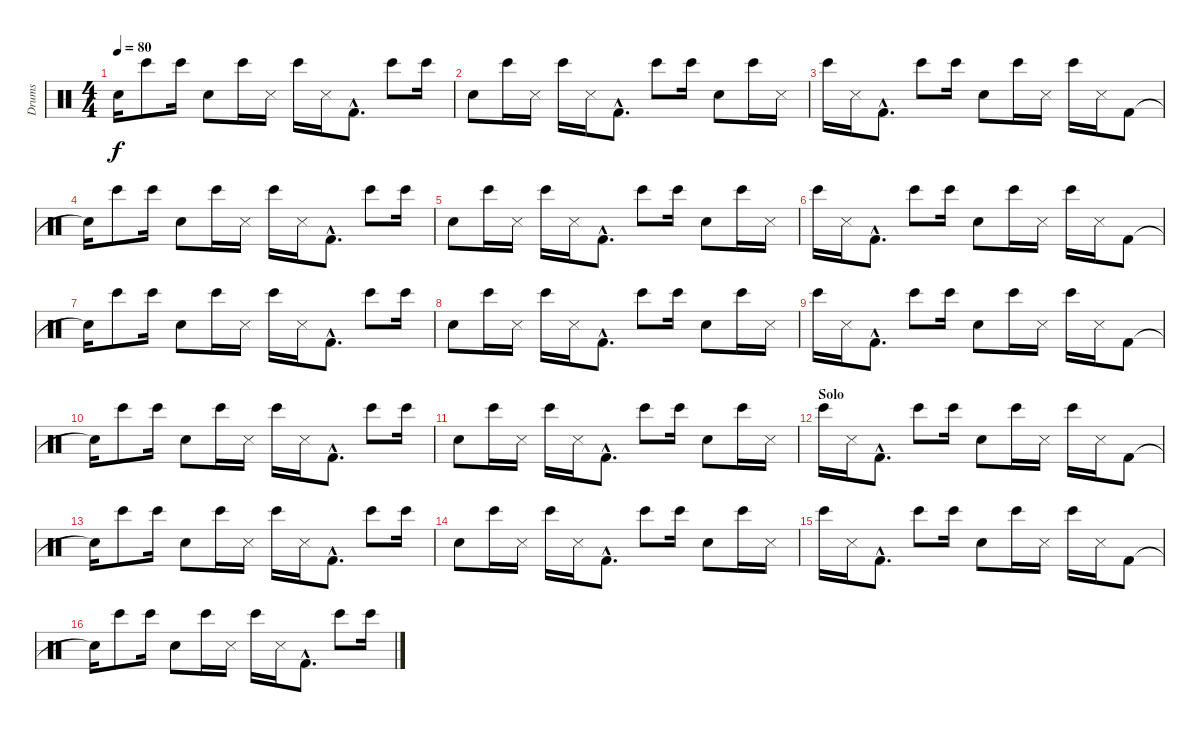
\track ("Drums" "Drums") {instrument percussion}
\staff {score}
\articulation defaults
\ts (4 4)
\tempo 80
\clef neutral
\ks c "Snare (hit)"{t}.16{dy f} "Bongo High (hit)".8 "Bongo High (hit)".16 "Electric Snare (hit)".8 "Bongo High (hit)".16 "Snare (side stick) 3".16 "Bongo High (hit)".16 "Snare (side stick) 3".16 "Kick (hit) 2"{hac}.8{d} "Bongo High (hit)".8 "Bongo High (hit)".16
|
"Electric Snare (hit)".8 "Bongo High (hit)".16 "Snare (side stick) 3".16 "Bongo High (hit)".16 "Snare (side stick) 3".16 "Kick (hit) 2"{hac}.8{d} "Bongo High (hit)".8 "Bongo High (hit)".16 "Electric Snare (hit)".8 "Bongo High (hit)".16 "Snare (side stick) 3".16 |
"Bongo High (hit)".16 "Snare (side stick) 3".16 "Kick (hit) 2"{hac}.8{d} "Bongo High (hit)".8 "Bongo High (hit)".16 "Electric Snare (hit)".8 "Bongo High (hit)".16 "Snare (side stick) 3".16 "Bongo High (hit)".16 "Snare (side stick) 3".16 "Kick (hit) 2".8 |
"Snare (hit)"{t}.16 "Bongo High (hit)".8 "Bongo High (hit)".16 "Electric Snare (hit)".8 "Bongo High (hit)".16 "Snare (side stick) 3".16 "Bongo High (hit)".16 "Snare (side stick) 3".16 "Kick (hit) 2"{hac}.8{d} "Bongo High (hit)".8 "Bongo High (hit)".16 |
"Electric Snare (hit)".8 "Bongo High (hit)".16 "Snare (side stick) 3".16 "Bongo High (hit)".16 "Snare (side stick) 3".16 "Kick (hit) 2"{hac}.8{d} "Bongo High (hit)".8 "Bongo High (hit)".16 "Electric Snare (hit)".8 "Bongo High (hit)".16 "Snare (side stick) 3".16 |
"Bongo High (hit)".16 "Snare (side stick) 3".16 "Kick (hit) 2"{hac}.8{d} "Bongo High (hit)".8 "Bongo High (hit)".16 "Electric Snare (hit)".8 "Bongo High (hit)".16 "Snare (side stick) 3".16 "Bongo High (hit)".16 "Snare (side stick) 3".16 "Kick (hit) 2".8 |
"Snare (hit)"{t}.16 "Bongo High (hit)".8 "Bongo High (hit)".16 "Electric Snare (hit)".8 "Bongo High (hit)".16 "Snare (side stick) 3".16 "Bongo High (hit)".16 "Snare (side stick) 3".16 "Kick (hit) 2"{hac}.8{d} "Bongo High (hit)".8 "Bongo High (hit)".16 |
"Electric Snare (hit)".8 "Bongo High (hit)".16 "Snare (side stick) 3".16 "Bongo High (hit)".16 "Snare (side stick) 3".16 "Kick (hit) 2"{hac}.8{d} "Bongo High (hit)".8 "Bongo High (hit)".16 "Electric Snare (hit)".8 "Bongo High (hit)".16 "Snare (side stick) 3".16 |
"Bongo High (hit)".16 "Snare (side stick) 3".16 "Kick (hit) 2"{hac}.8{d} "Bongo High (hit)".8 "Bongo High (hit)".16 "Electric Snare (hit)".8 "Bongo High (hit)".16 "Snare (side stick) 3".16 "Bongo High (hit)".16 "Snare (side stick) 3".16 "Kick (hit) 2".8 |
"Snare (hit)"{t}.16 "Bongo High (hit)".8 "Bongo High (hit)".16 "Electric Snare (hit)".8 "Bongo High (hit)".16 "Snare (side stick) 3".16 "Bongo High (hit)".16 "Snare (side stick) 3".16 "Kick (hit) 2"{hac}.8{d} "Bongo High (hit)".8 "Bongo High (hit)".16 |
"Electric Snare (hit)".8 "Bongo High (hit)".16 "Snare (side stick) 3".16 "Bongo High (hit)".16 "Snare (side stick) 3".16 "Kick (hit) 2"{hac}.8{d} "Bongo High (hit)".8 "Bongo High (hit)".16 "Electric Snare (hit)".8 "Bongo High (hit)".16 "Snare (side stick) 3".16 |
\section ("" "Solo")
"Bongo High (hit)".16 "Snare (side stick) 3".16 "Kick (hit) 2"{hac}.8{d} "Bongo High (hit)".8 "Bongo High (hit)".16 "Electric Snare (hit)".8 "Bongo High (hit)".16 "Snare (side stick) 3".16 "Bongo High (hit)".16 "Snare (side stick) 3".16 "Kick (hit) 2".8 |
"Snare (hit)"{t}.16 "Bongo High (hit)".8 "Bongo High (hit)".16 "Electric Snare (hit)".8 "Bongo High (hit)".16 "Snare (side stick) 3".16 "Bongo High (hit)".16 "Snare (side stick) 3".16 "Kick (hit) 2"{hac}.8{d} "Bongo High (hit)".8 "Bongo High (hit)".16 |
"Electric Snare (hit)".8 "Bongo High (hit)".16 "Snare (side stick) 3".16 "Bongo High (hit)".16 "Snare (side stick) 3".16 "Kick (hit) 2"{hac}.8{d} "Bongo High (hit)".8 "Bongo High (hit)".16 "Electric Snare (hit)".8 "Bongo High (hit)".16 "Snare (side stick) 3".16 |
"Bongo High (hit)".16 "Snare (side stick) 3".16 "Kick (hit) 2"{hac}.8{d} "Bongo High (hit)".8 "Bongo High (hit)".16 "Electric Snare (hit)".8 "Bongo High (hit)".16 "Snare (side stick) 3".16 "Bongo High (hit)".16 "Snare (side stick) 3".16 "Kick (hit) 2".8 |
"Snare (hit)"{t}.16 "Bongo High (hit)".8 "Bongo High (hit)".16 "Electric Snare (hit)".8 "Bongo High (hit)".16 "Snare (side stick) 3".16 "Bongo High (hit)".16 "Snare (side stick) 3".16 "Kick (hit) 2"{hac}.8{d} "Bongo High (hit)".8 "Bongo High (hit)".16
